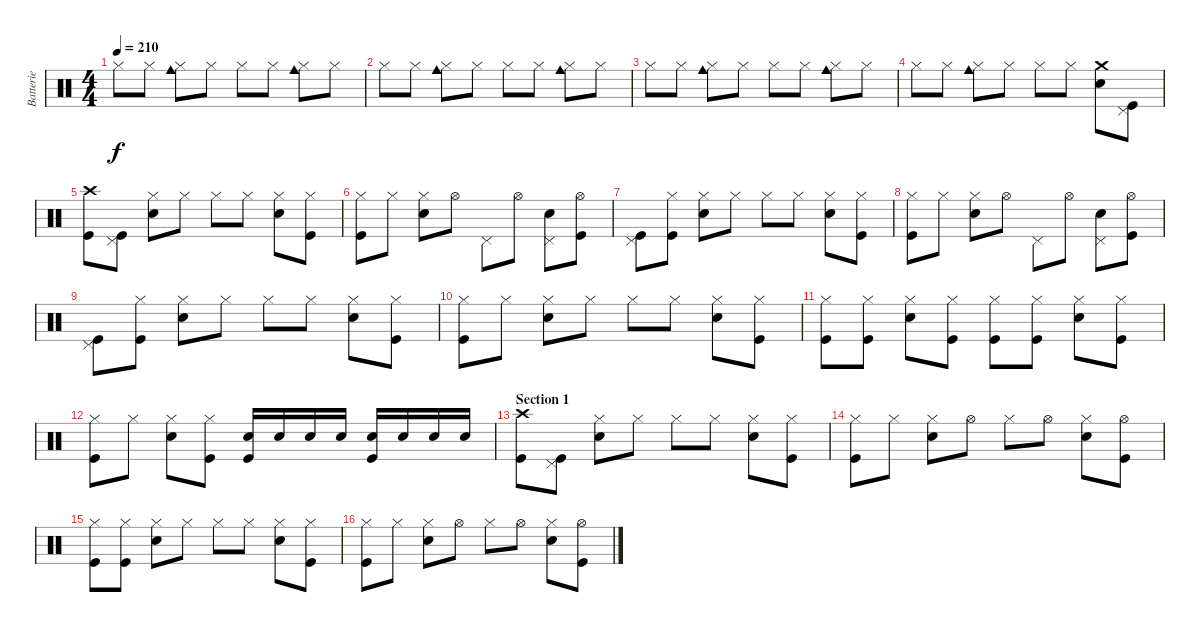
\track ("Batterie" "Batterie") {instrument percussion}
\staff {score}
\articulation defaults
\ts (4 4)
\tempo 210
\clef neutral
\ks c "Hi-Hat (closed)".8{dy f} "Hi-Hat (closed)".8
("Hi-Hat (closed)" "Cowbell medium (hit)").8 "Hi-Hat (closed)".8 "Hi-Hat (closed)".8 "Hi-Hat (closed)".8 ("Hi-Hat (closed)" "Cowbell medium (hit)").8 "Hi-Hat (closed)".8 |
"Hi-Hat (closed)".8 "Hi-Hat (closed)".8 ("Hi-Hat (closed)" "Cowbell medium (hit)").8 "Hi-Hat (closed)".8 "Hi-Hat (closed)".8 "Hi-Hat (closed)".8 ("Hi-Hat (closed)" "Cowbell medium (hit)").8 "Hi-Hat (closed)".8 |
"Hi-Hat (closed)".8 "Hi-Hat (closed)".8 ("Hi-Hat (closed)" "Cowbell medium (hit)").8 "Hi-Hat (closed)".8 "Hi-Hat (closed)".8 "Hi-Hat (closed)".8 ("Hi-Hat (closed)" "Cowbell medium (hit)").8 "Hi-Hat (closed)".8 |
"Hi-Hat (closed)".8 "Hi-Hat (closed)".8 ("Hi-Hat (closed)" "Cowbell medium (hit)").8 "Hi-Hat (closed)".8 "Hi-Hat (closed)".8 "Hi-Hat (closed)".8 ("Crash medium (hit)" "Snare (hit) 2").8 ("Pedal Hi-Hat (hit)" "Kick (hit)").8 |
("Crash high (hit)" "Kick (hit)").8 ("Pedal Hi-Hat (hit)" "Kick (hit)").8 ("Hi-Hat (closed)" "Snare (hit) 2").8 "Hi-Hat (closed)".8 "Hi-Hat (closed)".8 "Hi-Hat (closed)".8 ("Hi-Hat (closed)" "Snare (hit) 2").8 ("Hi-Hat (closed)" "Kick (hit)").8 |
("Hi-Hat (closed)" "Kick (hit)").8 "Hi-Hat (closed)".8 ("Hi-Hat (closed)" "Snare (hit) 2").8 "Hi-Hat (open)".8 "Pedal Hi-Hat (hit)".8 "Hi-Hat (open)".8 ("Pedal Hi-Hat (hit)" "Snare (hit) 2").8 ("Hi-Hat (open)" "Kick (hit)").8 |
("Pedal Hi-Hat (hit)" "Kick (hit)").8 ("Hi-Hat (closed)" "Kick (hit)").8 ("Hi-Hat (closed)" "Snare (hit) 2").8 "Hi-Hat (closed)".8 "Hi-Hat (closed)".8 "Hi-Hat (closed)".8 ("Hi-Hat (closed)" "Snare (hit) 2").8 ("Hi-Hat (closed)" "Kick (hit)").8 |
("Hi-Hat (closed)" "Kick (hit)").8 "Hi-Hat (closed)".8 ("Hi-Hat (closed)" "Snare (hit) 2").8 "Hi-Hat (open)".8 "Pedal Hi-Hat (hit)".8 "Hi-Hat (open)".8 ("Pedal Hi-Hat (hit)" "Snare (hit) 2").8 ("Hi-Hat (open)" "Kick (hit)").8 |
("Pedal Hi-Hat (hit)" "Kick (hit)").8 ("Hi-Hat (closed)" "Kick (hit)").8 ("Hi-Hat (closed)" "Snare (hit) 2").8 "Hi-Hat (closed)".8 "Hi-Hat (closed)".8 "Hi-Hat (closed)".8 ("Hi-Hat (closed)" "Snare (hit) 2").8 ("Hi-Hat (closed)" "Kick (hit)").8 |
("Hi-Hat (closed)" "Kick (hit)").8 "Hi-Hat (closed)".8 ("Hi-Hat (closed)" "Snare (hit) 2").8 "Hi-Hat (closed)".8 "Hi-Hat (closed)".8 "Hi-Hat (closed)".8 ("Hi-Hat (closed)" "Snare (hit) 2").8 ("Hi-Hat (closed)" "Kick (hit)").8 |
("Hi-Hat (closed)" "Kick (hit)").8 ("Hi-Hat (closed)" "Kick (hit)").8 ("Hi-Hat (closed)" "Snare (hit) 2").8 ("Hi-Hat (closed)" "Kick (hit)").8 ("Hi-Hat (closed)" "Kick (hit)").8 ("Hi-Hat (closed)" "Kick (hit)").8 ("Hi-Hat (closed)" "Snare (hit) 2").8 ("Hi-Hat (closed)" "Kick (hit)").8 |
("Hi-Hat (closed)" "Kick (hit)").8 "Hi-Hat (closed)".8 ("Hi-Hat (closed)" "Snare (hit) 2").8 ("Hi-Hat (closed)" "Kick (hit)").8 ("Snare (hit) 2" "Kick (hit)").16 "Snare (hit) 2".16 "Snare (hit) 2".16 "Snare (hit) 2".16 ("Snare (hit) 2" "Kick (hit)").16 "Snare (hit) 2".16 "Snare (hit) 2".16 "Snare (hit) 2".16 |
\section ("" "Section 1")
("Crash high (hit)" "Kick (hit)").8 ("Pedal Hi-Hat (hit)" "Kick (hit)").8 ("Hi-Hat (closed)" "Snare (hit) 2").8 "Hi-Hat (closed)".8 "Hi-Hat (closed)".8 "Hi-Hat (closed)".8 ("Hi-Hat (closed)" "Snare (hit) 2").8 ("Hi-Hat (closed)" "Kick (hit)").8 |
("Hi-Hat (closed)" "Kick (hit)").8 "Hi-Hat (closed)".8 ("Hi-Hat (closed)" "Snare (hit) 2").8 "Hi-Hat (open)".8 "Hi-Hat (closed)".8 "Hi-Hat (open)".8 ("Hi-Hat (closed)" "Snare (hit) 2").8 ("Hi-Hat (open)" "Kick (hit)").8 |
("Hi-Hat (closed)" "Kick (hit)").8 ("Hi-Hat (closed)" "Kick (hit)").8 ("Hi-Hat (closed)" "Snare (hit) 2").8 "Hi-Hat (closed)".8 "Hi-Hat (closed)".8 "Hi-Hat (closed)".8 ("Hi-Hat (closed)" "Snare (hit) 2").8 ("Hi-Hat (closed)" "Kick (hit)").8 |
("Hi-Hat (closed)" "Kick (hit)").8 "Hi-Hat (closed)".8 ("Hi-Hat (closed)" "Snare (hit) 2").8 "Hi-Hat (open)".8 "Hi-Hat (closed)".8 "Hi-Hat (open)".8 ("Hi-Hat (closed)" "Snare (hit) 2").8 ("Hi-Hat (open)" "Kick (hit)").8
